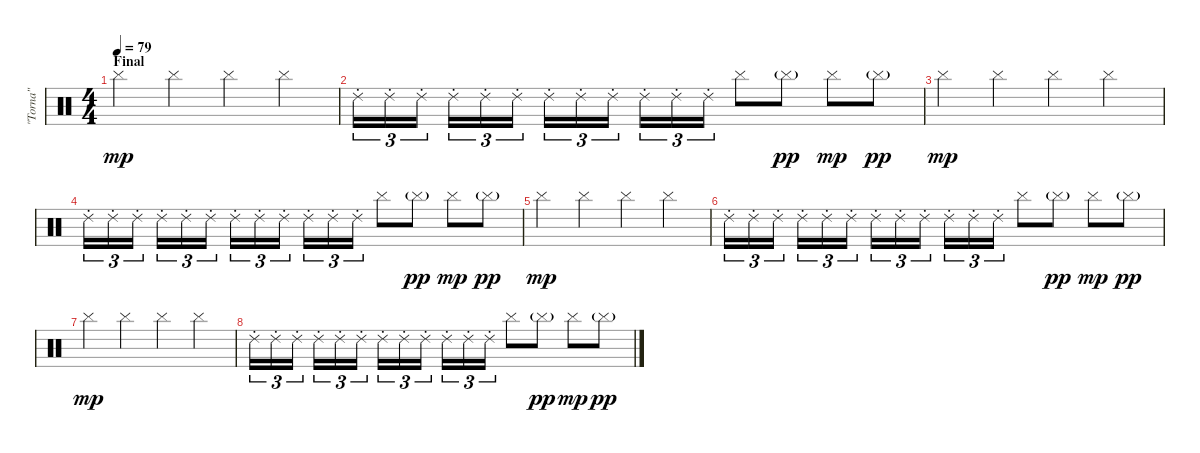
\track ("\"Torna\"" "\"Torna\"") {instrument percussion}
\staff {score}
\articulation defaults
\ts (4 4)
\section ("" "Final")
\tempo 79
\clef neutral
\ks c "Cymbal (hit)".4{dy mp} "Cymbal (hit)".4 "Cymbal (hit)".4 "Cymbal (hit)".4
|
"Ride (choke) 2".16{tu (3 2)} "Ride (choke) 2".16{tu (3 2)} "Ride (choke) 2".16{tu (3 2) beam splitsecondary} "Ride (choke) 2".16{tu (3 2)} "Ride (choke) 2".16{tu (3 2)} "Ride (choke) 2".16{tu (3 2)} "Ride (choke) 2".16{tu (3 2)} "Ride (choke) 2".16{tu (3 2)} "Ride (choke) 2".16{tu (3 2) beam splitsecondary} "Ride (choke) 2".16{tu (3 2)} "Ride (choke) 2".16{tu (3 2)} "Ride (choke) 2".16{tu (3 2)} "Cymbal (hit)".8 "Cymbal (hit)"{g}.8{dy pp} "Cymbal (hit)".8{dy mp} "Cymbal (hit)"{g}.8{dy pp} |
"Cymbal (hit)".4{dy mp} "Cymbal (hit)".4 "Cymbal (hit)".4 "Cymbal (hit)".4 |
"Ride (choke) 2".16{tu (3 2)} "Ride (choke) 2".16{tu (3 2)} "Ride (choke) 2".16{tu (3 2) beam splitsecondary} "Ride (choke) 2".16{tu (3 2)} "Ride (choke) 2".16{tu (3 2)} "Ride (choke) 2".16{tu (3 2)} "Ride (choke) 2".16{tu (3 2)} "Ride (choke) 2".16{tu (3 2)} "Ride (choke) 2".16{tu (3 2) beam splitsecondary} "Ride (choke) 2".16{tu (3 2)} "Ride (choke) 2".16{tu (3 2)} "Ride (choke) 2".16{tu (3 2)} "Cymbal (hit)".8 "Cymbal (hit)"{g}.8{dy pp} "Cymbal (hit)".8{dy mp} "Cymbal (hit)"{g}.8{dy pp} |
"Cymbal (hit)".4{dy mp} "Cymbal (hit)".4 "Cymbal (hit)".4 "Cymbal (hit)".4 |
"Ride (choke) 2".16{tu (3 2)} "Ride (choke) 2".16{tu (3 2)} "Ride (choke) 2".16{tu (3 2) beam splitsecondary} "Ride (choke) 2".16{tu (3 2)} "Ride (choke) 2".16{tu (3 2)} "Ride (choke) 2".16{tu (3 2)} "Ride (choke) 2".16{tu (3 2)} "Ride (choke) 2".16{tu (3 2)} "Ride (choke) 2".16{tu (3 2) beam splitsecondary} "Ride (choke) 2".16{tu (3 2)} "Ride (choke) 2".16{tu (3 2)} "Ride (choke) 2".16{tu (3 2)} "Cymbal (hit)".8 "Cymbal (hit)"{g}.8{dy pp} "Cymbal (hit)".8{dy mp} "Cymbal (hit)"{g}.8{dy pp} |
"Cymbal (hit)".4{dy mp} "Cymbal (hit)".4 "Cymbal (hit)".4 "Cymbal (hit)".4 |
"Ride (choke) 2".16{tu (3 2)} "Ride (choke) 2".16{tu (3 2)} "Ride (choke) 2".16{tu (3 2) beam splitsecondary} "Ride (choke) 2".16{tu (3 2)} "Ride (choke) 2".16{tu (3 2)} "Ride (choke) 2".16{tu (3 2)} "Ride (choke) 2".16{tu (3 2)} "Ride (choke) 2".16{tu (3 2)} "Ride (choke) 2".16{tu (3 2) beam splitsecondary} "Ride (choke) 2".16{tu (3 2)} "Ride (choke) 2".16{tu (3 2)} "Ride (choke) 2".16{tu (3 2)} "Cymbal (hit)".8 "Cymbal (hit)"{g}.8{dy pp} "Cymbal (hit)".8{dy mp} "Cymbal (hit)"{g}.8{dy pp}
